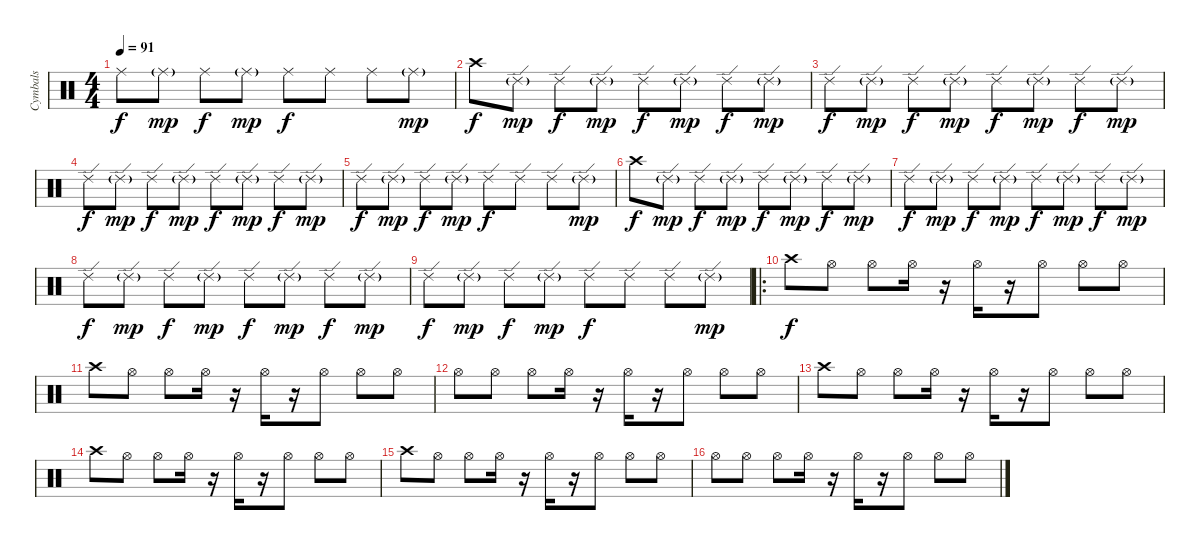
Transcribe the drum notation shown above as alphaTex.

\track ("Cymbals" "Cymbals") {instrument percussion}
\staff {score}
\articulation defaults
\ts (4 4)
\tempo 91
\clef neutral
\ks c "Ride (middle)".8{dy f} "Ride (middle)"{g}.8{dy mp} "Ride (middle)".8{dy f} "Ride (middle)"{g}.8{dy mp} "Ride (middle)".8{dy f} "Ride (middle)".8 "Ride (middle)".8 "Ride (middle)"{g}.8{dy mp}
|
"Crash high (hit)".8{dy f} "Ride (edge) 2"{g}.8{dy mp} "Ride (edge) 2".8{dy f} "Ride (edge) 2"{g}.8{dy mp} "Ride (edge) 2".8{dy f} "Ride (edge) 2"{g}.8{dy mp} "Ride (edge) 2".8{dy f} "Ride (edge) 2"{g}.8{dy mp} |
"Ride (edge) 2".8{dy f} "Ride (edge) 2"{g}.8{dy mp} "Ride (edge) 2".8{dy f} "Ride (edge) 2"{g}.8{dy mp} "Ride (edge) 2".8{dy f} "Ride (edge) 2"{g}.8{dy mp} "Ride (edge) 2".8{dy f} "Ride (edge) 2"{g}.8{dy mp} |
"Ride (edge) 2".8{dy f} "Ride (edge) 2"{g}.8{dy mp} "Ride (edge) 2".8{dy f} "Ride (edge) 2"{g}.8{dy mp} "Ride (edge) 2".8{dy f} "Ride (edge) 2"{g}.8{dy mp} "Ride (edge) 2".8{dy f} "Ride (edge) 2"{g}.8{dy mp} |
"Ride (edge) 2".8{dy f} "Ride (edge) 2"{g}.8{dy mp} "Ride (edge) 2".8{dy f} "Ride (edge) 2"{g}.8{dy mp} "Ride (edge) 2".8{dy f} "Ride (edge) 2".8 "Ride (edge) 2".8 "Ride (edge) 2"{g}.8{dy mp} |
"Crash high (hit)".8{dy f} "Ride (edge) 2"{g}.8{dy mp} "Ride (edge) 2".8{dy f} "Ride (edge) 2"{g}.8{dy mp} "Ride (edge) 2".8{dy f} "Ride (edge) 2"{g}.8{dy mp} "Ride (edge) 2".8{dy f} "Ride (edge) 2"{g}.8{dy mp} |
"Ride (edge) 2".8{dy f} "Ride (edge) 2"{g}.8{dy mp} "Ride (edge) 2".8{dy f} "Ride (edge) 2"{g}.8{dy mp} "Ride (edge) 2".8{dy f} "Ride (edge) 2"{g}.8{dy mp} "Ride (edge) 2".8{dy f} "Ride (edge) 2"{g}.8{dy mp} |
"Ride (edge) 2".8{dy f} "Ride (edge) 2"{g}.8{dy mp} "Ride (edge) 2".8{dy f} "Ride (edge) 2"{g}.8{dy mp} "Ride (edge) 2".8{dy f} "Ride (edge) 2"{g}.8{dy mp} "Ride (edge) 2".8{dy f} "Ride (edge) 2"{g}.8{dy mp} |
"Ride (edge) 2".8{dy f} "Ride (edge) 2"{g}.8{dy mp} "Ride (edge) 2".8{dy f} "Ride (edge) 2"{g}.8{dy mp} "Ride (edge) 2".8{dy f} "Ride (edge) 2".8 "Ride (edge) 2".8 "Ride (edge) 2"{g}.8{dy mp} |
\ro "Crash high (hit)".8{dy f} "Hi-Hat (open)".8 "Hi-Hat (open)".8 "Hi-Hat (open)".16
r.16 "Hi-Hat (open)".16 r.16 "Hi-Hat (open)".8 "Hi-Hat (open)".8 "Hi-Hat (open)".8 |
"Crash high (hit)".8 "Hi-Hat (open)".8 "Hi-Hat (open)".8 "Hi-Hat (open)".16 r.16 "Hi-Hat (open)".16 r.16 "Hi-Hat (open)".8 "Hi-Hat (open)".8 "Hi-Hat (open)".8 |
"Hi-Hat (open)".8 "Hi-Hat (open)".8 "Hi-Hat (open)".8 "Hi-Hat (open)".16 r.16 "Hi-Hat (open)".16 r.16 "Hi-Hat (open)".8 "Hi-Hat (open)".8 "Hi-Hat (open)".8 |
"Crash high (hit)".8 "Hi-Hat (open)".8 "Hi-Hat (open)".8 "Hi-Hat (open)".16 r.16 "Hi-Hat (open)".16 r.16 "Hi-Hat (open)".8 "Hi-Hat (open)".8 "Hi-Hat (open)".8 |
"Crash high (hit)".8 "Hi-Hat (open)".8 "Hi-Hat (open)".8 "Hi-Hat (open)".16 r.16 "Hi-Hat (open)".16 r.16 "Hi-Hat (open)".8 "Hi-Hat (open)".8 "Hi-Hat (open)".8 |
"Crash high (hit)".8 "Hi-Hat (open)".8 "Hi-Hat (open)".8 "Hi-Hat (open)".16 r.16 "Hi-Hat (open)".16 r.16 "Hi-Hat (open)".8 "Hi-Hat (open)".8 "Hi-Hat (open)".8 |
"Hi-Hat (open)".8 "Hi-Hat (open)".8 "Hi-Hat (open)".8 "Hi-Hat (open)".16 r.16 "Hi-Hat (open)".16 r.16 "Hi-Hat (open)".8 "Hi-Hat (open)".8 "Hi-Hat (open)".8
